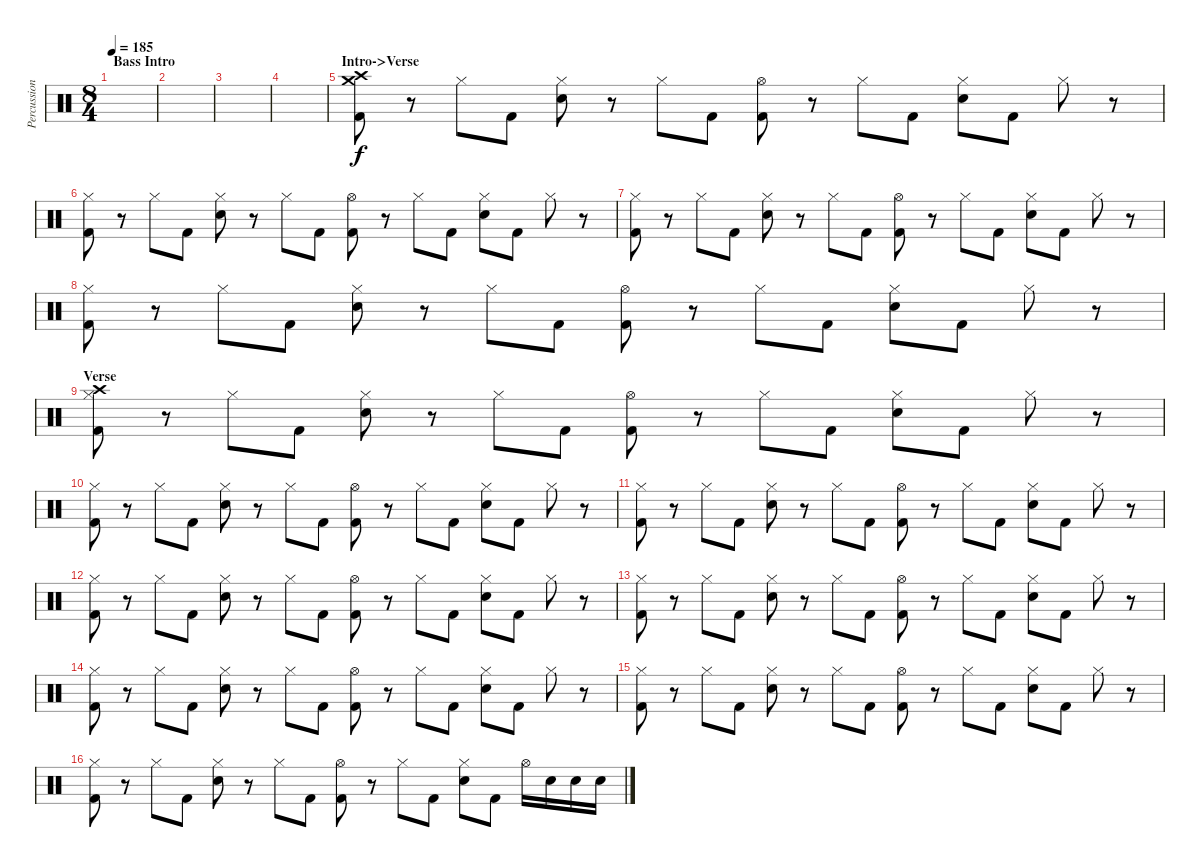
\track ("Percussion" "Percussion") {instrument percussion}
\staff {score}
\articulation defaults
\ts (8 4)
\section ("" "Bass Intro")
\tempo 185
\clef neutral
\ks c
|
|
|
|
\section ("" "Intro->Verse")
("Crash high (hit)" "Crash medium (hit)" "Kick (hit) 2").8 r.8 "Hi-Hat (closed)".8 "Kick (hit) 2".8 ("Hi-Hat (closed)" "Electric Snare (hit)").8 r.8 "Hi-Hat (closed)".8 "Kick (hit) 2".8 ("Hi-Hat (open)" "Kick (hit) 2").8 r.8 "Hi-Hat (closed)".8 "Kick (hit) 2".8 ("Hi-Hat (closed)" "Electric Snare (hit)").8 "Kick (hit) 2".8 "Hi-Hat (closed)".8 r.8 |
("Hi-Hat (closed)" "Kick (hit) 2").8 r.8 "Hi-Hat (closed)".8 "Kick (hit) 2".8 ("Hi-Hat (closed)" "Electric Snare (hit)").8 r.8 "Hi-Hat (closed)".8 "Kick (hit) 2".8 ("Hi-Hat (open)" "Kick (hit) 2").8 r.8 "Hi-Hat (closed)".8 "Kick (hit) 2".8 ("Hi-Hat (closed)" "Electric Snare (hit)").8 "Kick (hit) 2".8 "Hi-Hat (closed)".8 r.8 |
("Hi-Hat (closed)" "Kick (hit) 2").8 r.8 "Hi-Hat (closed)".8 "Kick (hit) 2".8 ("Hi-Hat (closed)" "Electric Snare (hit)").8 r.8 "Hi-Hat (closed)".8 "Kick (hit) 2".8 ("Hi-Hat (open)" "Kick (hit) 2").8 r.8 "Hi-Hat (closed)".8 "Kick (hit) 2".8 ("Hi-Hat (closed)" "Electric Snare (hit)").8 "Kick (hit) 2".8 "Hi-Hat (closed)".8 r.8 |
("Hi-Hat (closed)" "Kick (hit) 2").8 r.8 "Hi-Hat (closed)".8 "Kick (hit) 2".8 ("Hi-Hat (closed)" "Electric Snare (hit)").8 r.8 "Hi-Hat (closed)".8 "Kick (hit) 2".8 ("Hi-Hat (open)" "Kick (hit) 2").8 r.8 "Hi-Hat (closed)".8 "Kick (hit) 2".8 ("Hi-Hat (closed)" "Electric Snare (hit)").8 "Kick (hit) 2".8 "Hi-Hat (closed)".8 r.8 |
\section ("" "Verse")
("Crash high (hit)" "Hi-Hat (closed)" "Kick (hit) 2").8 r.8 "Hi-Hat (closed)".8 "Kick (hit) 2".8 ("Hi-Hat (closed)" "Electric Snare (hit)").8 r.8 "Hi-Hat (closed)".8 "Kick (hit) 2".8 ("Hi-Hat (open)" "Kick (hit) 2").8 r.8 "Hi-Hat (closed)".8 "Kick (hit) 2".8 ("Hi-Hat (closed)" "Electric Snare (hit)").8 "Kick (hit) 2".8 "Hi-Hat (closed)".8 r.8 |
("Hi-Hat (closed)" "Kick (hit) 2").8 r.8 "Hi-Hat (closed)".8 "Kick (hit) 2".8 ("Hi-Hat (closed)" "Electric Snare (hit)").8 r.8 "Hi-Hat (closed)".8 "Kick (hit) 2".8 ("Hi-Hat (open)" "Kick (hit) 2").8 r.8 "Hi-Hat (closed)".8 "Kick (hit) 2".8 ("Hi-Hat (closed)" "Electric Snare (hit)").8 "Kick (hit) 2".8 "Hi-Hat (closed)".8 r.8 |
("Hi-Hat (closed)" "Kick (hit) 2").8 r.8 "Hi-Hat (closed)".8 "Kick (hit) 2".8 ("Hi-Hat (closed)" "Electric Snare (hit)").8 r.8 "Hi-Hat (closed)".8 "Kick (hit) 2".8 ("Hi-Hat (open)" "Kick (hit) 2").8 r.8 "Hi-Hat (closed)".8 "Kick (hit) 2".8 ("Hi-Hat (closed)" "Electric Snare (hit)").8 "Kick (hit) 2".8 "Hi-Hat (closed)".8 r.8 |
("Hi-Hat (closed)" "Kick (hit) 2").8 r.8 "Hi-Hat (closed)".8 "Kick (hit) 2".8 ("Hi-Hat (closed)" "Electric Snare (hit)").8 r.8 "Hi-Hat (closed)".8 "Kick (hit) 2".8 ("Hi-Hat (open)" "Kick (hit) 2").8 r.8 "Hi-Hat (closed)".8 "Kick (hit) 2".8 ("Hi-Hat (closed)" "Electric Snare (hit)").8 "Kick (hit) 2".8 "Hi-Hat (closed)".8 r.8 |
("Hi-Hat (closed)" "Kick (hit) 2").8 r.8 "Hi-Hat (closed)".8 "Kick (hit) 2".8 ("Hi-Hat (closed)" "Electric Snare (hit)").8 r.8 "Hi-Hat (closed)".8 "Kick (hit) 2".8 ("Hi-Hat (open)" "Kick (hit) 2").8 r.8 "Hi-Hat (closed)".8 "Kick (hit) 2".8 ("Hi-Hat (closed)" "Electric Snare (hit)").8 "Kick (hit) 2".8 "Hi-Hat (closed)".8 r.8 |
("Hi-Hat (closed)" "Kick (hit) 2").8 r.8 "Hi-Hat (closed)".8 "Kick (hit) 2".8 ("Hi-Hat (closed)" "Electric Snare (hit)").8 r.8 "Hi-Hat (closed)".8 "Kick (hit) 2".8 ("Hi-Hat (open)" "Kick (hit) 2").8 r.8 "Hi-Hat (closed)".8 "Kick (hit) 2".8 ("Hi-Hat (closed)" "Electric Snare (hit)").8 "Kick (hit) 2".8 "Hi-Hat (closed)".8 r.8 |
("Hi-Hat (closed)" "Kick (hit) 2").8 r.8 "Hi-Hat (closed)".8 "Kick (hit) 2".8 ("Hi-Hat (closed)" "Electric Snare (hit)").8 r.8 "Hi-Hat (closed)".8 "Kick (hit) 2".8 ("Hi-Hat (open)" "Kick (hit) 2").8 r.8 "Hi-Hat (closed)".8 "Kick (hit) 2".8 ("Hi-Hat (closed)" "Electric Snare (hit)").8 "Kick (hit) 2".8 "Hi-Hat (closed)".8 r.8 |
("Hi-Hat (closed)" "Kick (hit) 2").8 r.8 "Hi-Hat (closed)".8 "Kick (hit) 2".8 ("Hi-Hat (closed)" "Electric Snare (hit)").8 r.8 "Hi-Hat (closed)".8 "Kick (hit) 2".8 ("Hi-Hat (open)" "Kick (hit) 2").8 r.8 "Hi-Hat (closed)".8 "Kick (hit) 2".8 ("Hi-Hat (closed)" "Electric Snare (hit)").8 "Kick (hit) 2".8 "Hi-Hat (open)".16 "Electric Snare (hit)".16 "Electric Snare (hit)".16 "Electric Snare (hit)".16
